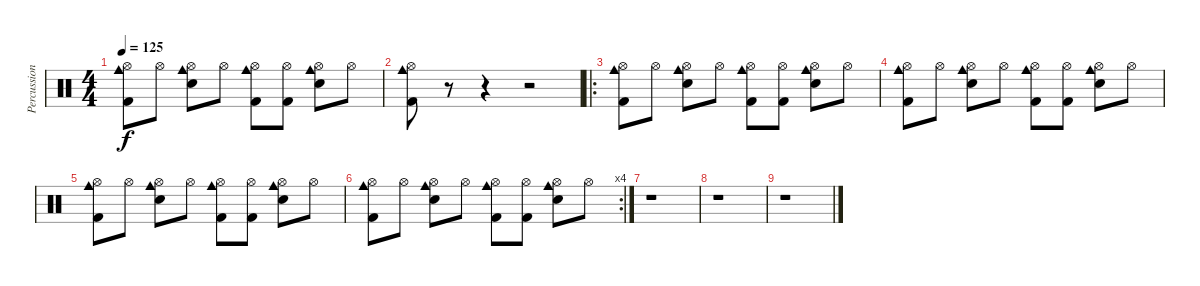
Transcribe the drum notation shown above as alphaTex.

\track ("Percussion" "Percussion") {instrument percussion}
\staff {score}
\articulation defaults
\ts (4 4)
\tempo 125
\clef neutral
\ks c
("Hi-Hat (open)" "Cowbell medium (hit)" "Kick (hit) 2").8{dy f} "Hi-Hat (open)".8 ("Hi-Hat (open)" "Snare (hit) 2" "Cowbell medium (hit)").8 "Hi-Hat (open)".8 ("Hi-Hat (open)" "Cowbell medium (hit)" "Kick (hit) 2").8 ("Hi-Hat (open)" "Kick (hit) 2").8 ("Hi-Hat (open)" "Snare (hit) 2" "Cowbell medium (hit)").8 "Hi-Hat (open)".8 |
("Hi-Hat (open)" "Cowbell medium (hit)" "Kick (hit) 2").8 r.8 r.4 r.2 |
\ro
("Hi-Hat (open)" "Cowbell medium (hit)" "Kick (hit) 2").8 "Hi-Hat (open)".8 ("Hi-Hat (open)" "Snare (hit) 2" "Cowbell medium (hit)").8 "Hi-Hat (open)".8 ("Hi-Hat (open)" "Cowbell medium (hit)" "Kick (hit) 2").8 ("Hi-Hat (open)" "Kick (hit) 2").8 ("Hi-Hat (open)" "Snare (hit) 2" "Cowbell medium (hit)").8 "Hi-Hat (open)".8 |
("Hi-Hat (open)" "Cowbell medium (hit)" "Kick (hit) 2").8 "Hi-Hat (open)".8 ("Hi-Hat (open)" "Snare (hit) 2" "Cowbell medium (hit)").8 "Hi-Hat (open)".8 ("Hi-Hat (open)" "Cowbell medium (hit)" "Kick (hit) 2").8 ("Hi-Hat (open)" "Kick (hit) 2").8 ("Hi-Hat (open)" "Snare (hit) 2" "Cowbell medium (hit)").8 "Hi-Hat (open)".8 |
("Hi-Hat (open)" "Cowbell medium (hit)" "Kick (hit) 2").8 "Hi-Hat (open)".8 ("Hi-Hat (open)" "Snare (hit) 2" "Cowbell medium (hit)").8 "Hi-Hat (open)".8 ("Hi-Hat (open)" "Cowbell medium (hit)" "Kick (hit) 2").8 ("Hi-Hat (open)" "Kick (hit) 2").8 ("Hi-Hat (open)" "Snare (hit) 2" "Cowbell medium (hit)").8 "Hi-Hat (open)".8 |
\rc 4
("Hi-Hat (open)" "Cowbell medium (hit)" "Kick (hit) 2").8 "Hi-Hat (open)".8 ("Hi-Hat (open)" "Snare (hit) 2" "Cowbell medium (hit)").8 "Hi-Hat (open)".8 ("Hi-Hat (open)" "Cowbell medium (hit)" "Kick (hit) 2").8 ("Hi-Hat (open)" "Kick (hit) 2").8 ("Hi-Hat (open)" "Snare (hit) 2" "Cowbell medium (hit)").8 "Hi-Hat (open)".8 |
r.1 |
r.1 |
r.1
